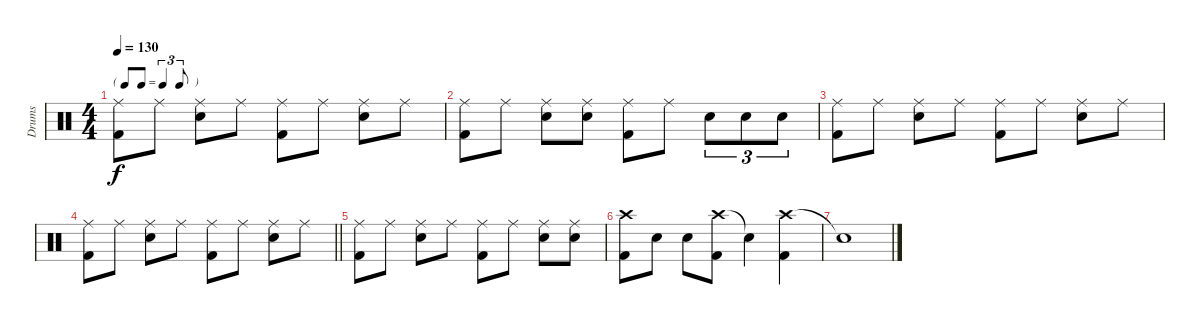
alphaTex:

\track ("Drums" "Drums") {instrument percussion}
\staff {score}
\articulation defaults
\ts (4 4)
\tf triplet8th
\tempo 130
\clef neutral
\ks c
("Ride (middle)" "Kick (hit) 2").8{dy f} "Ride (middle)".8 ("Ride (middle)" "Snare (hit) 2").8 "Ride (middle)".8 ("Ride (middle)" "Kick (hit) 2").8 "Ride (middle)".8 ("Ride (middle)" "Snare (hit) 2").8 "Ride (middle)".8 |
("Ride (middle)" "Kick (hit) 2").8 "Ride (middle)".8 ("Ride (middle)" "Snare (hit) 2").8 ("Ride (middle)" "Snare (hit) 2").8 ("Ride (middle)" "Kick (hit) 2").8 "Ride (middle)".8 "Snare (hit) 2".8{tu (3 2)} "Snare (hit) 2".8{tu (3 2)} "Snare (hit) 2".8{tu (3 2)} |
("Ride (middle)" "Kick (hit) 2").8 "Ride (middle)".8 ("Ride (middle)" "Snare (hit) 2").8 "Ride (middle)".8 ("Ride (middle)" "Kick (hit) 2").8 "Ride (middle)".8 ("Ride (middle)" "Snare (hit) 2").8 "Ride (middle)".8 |
\barLineRight lightlight
("Ride (middle)" "Kick (hit) 2").8 "Ride (middle)".8 ("Ride (middle)" "Snare (hit) 2").8 "Ride (middle)".8 ("Ride (middle)" "Kick (hit) 2").8 "Ride (middle)".8 ("Ride (middle)" "Snare (hit) 2").8 "Ride (middle)".8 |
("Ride (middle)" "Kick (hit) 2").8 "Ride (middle)".8 ("Ride (middle)" "Snare (hit) 2").8 "Ride (middle)".8 ("Ride (middle)" "Kick (hit) 2").8 "Ride (middle)".8 ("Ride (middle)" "Snare (hit) 2").8 ("Ride (middle)" "Snare (hit) 2").8 |
("Crash high (hit)" "Kick (hit) 2").8 "Snare (hit) 2".8 "Snare (hit) 2".8 ("Crash high (hit)" "Kick (hit) 2").8 "Snare (hit)"{t}.4 ("Crash high (hit)" "Kick (hit) 2").4 |
"Snare (hit)"{t}.1
